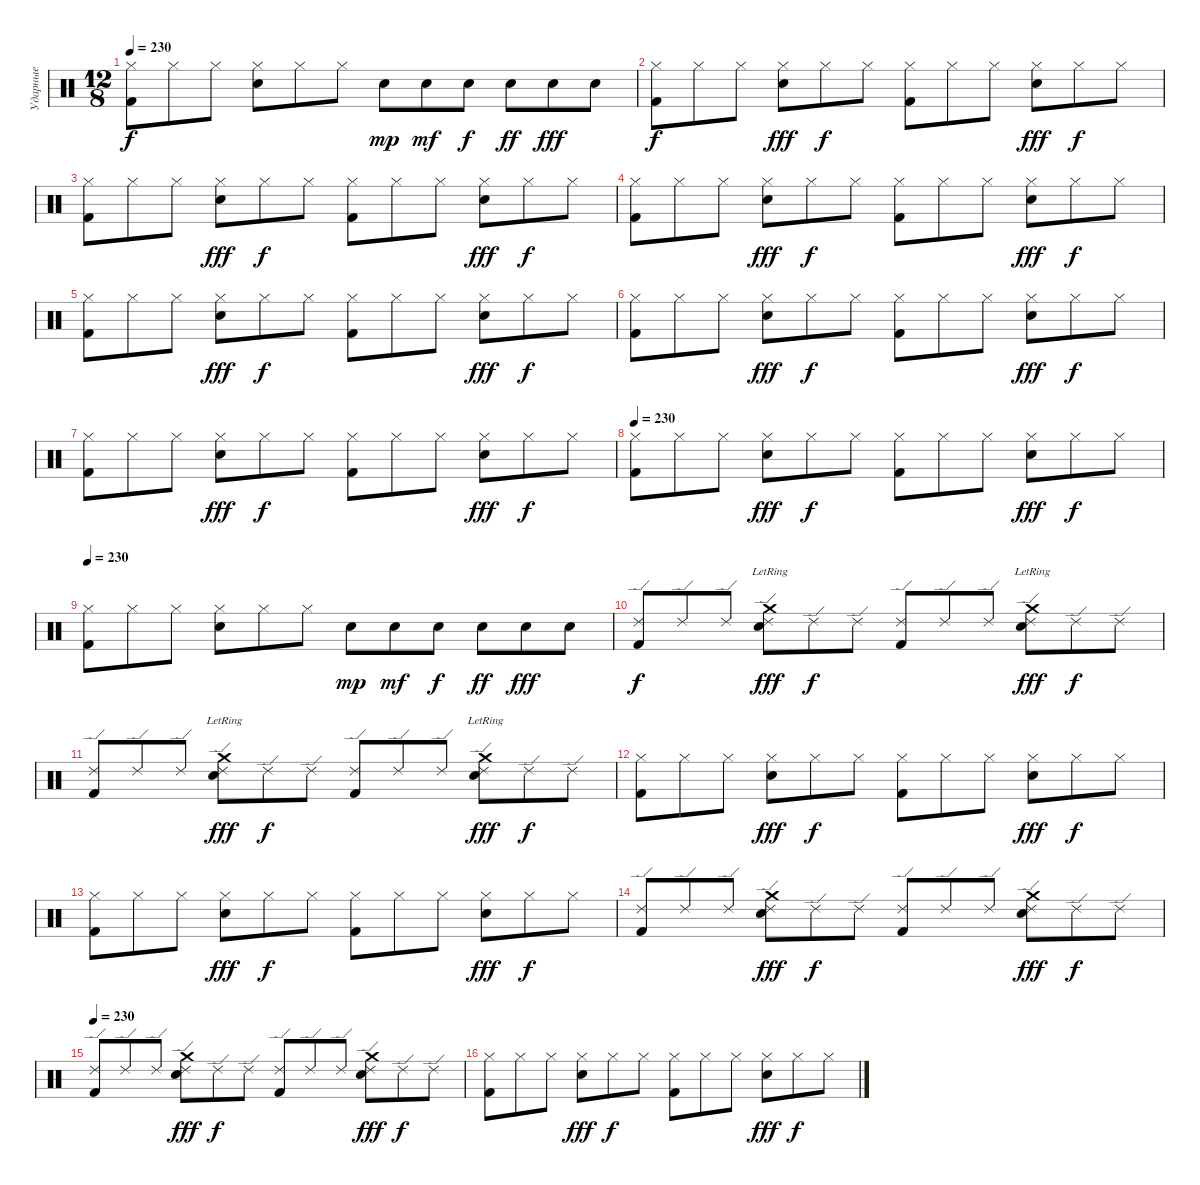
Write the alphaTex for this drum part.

\track ("Ударные" "Ударные") {instrument percussion}
\staff {score}
\articulation defaults
\ts (12 8)
\tempo 230
\clef neutral
\ks c
("Hi-Hat (closed)" "Kick (hit) 2").8{dy f} "Hi-Hat (closed)".8 "Hi-Hat (closed)".8 ("Hi-Hat (closed)" "Snare (hit) 2").8 "Hi-Hat (closed)".8 "Hi-Hat (closed)".8 "Snare (hit) 2".8{dy mp} "Snare (hit) 2".8{dy mf} "Snare (hit) 2".8{dy f} "Snare (hit) 2".8{dy ff} "Snare (hit) 2".8{dy fff} "Snare (hit) 2".8 |
("Hi-Hat (closed)" "Kick (hit) 2").8{dy f} "Hi-Hat (closed)".8 "Hi-Hat (closed)".8 ("Hi-Hat (closed)" "Snare (hit) 2").8{dy fff} "Hi-Hat (closed)".8{dy f} "Hi-Hat (closed)".8 ("Hi-Hat (closed)" "Kick (hit) 2").8 "Hi-Hat (closed)".8 "Hi-Hat (closed)".8 ("Hi-Hat (closed)" "Snare (hit) 2").8{dy fff} "Hi-Hat (closed)".8{dy f} "Hi-Hat (closed)".8 |
("Hi-Hat (closed)" "Kick (hit) 2").8 "Hi-Hat (closed)".8 "Hi-Hat (closed)".8 ("Hi-Hat (closed)" "Snare (hit) 2").8{dy fff} "Hi-Hat (closed)".8{dy f} "Hi-Hat (closed)".8 ("Hi-Hat (closed)" "Kick (hit) 2").8 "Hi-Hat (closed)".8 "Hi-Hat (closed)".8 ("Hi-Hat (closed)" "Snare (hit) 2").8{dy fff} "Hi-Hat (closed)".8{dy f} "Hi-Hat (closed)".8 |
("Hi-Hat (closed)" "Kick (hit) 2").8 "Hi-Hat (closed)".8 "Hi-Hat (closed)".8 ("Hi-Hat (closed)" "Snare (hit) 2").8{dy fff} "Hi-Hat (closed)".8{dy f} "Hi-Hat (closed)".8 ("Hi-Hat (closed)" "Kick (hit) 2").8 "Hi-Hat (closed)".8 "Hi-Hat (closed)".8 ("Hi-Hat (closed)" "Snare (hit) 2").8{dy fff} "Hi-Hat (closed)".8{dy f} "Hi-Hat (closed)".8 |
("Hi-Hat (closed)" "Kick (hit) 2").8 "Hi-Hat (closed)".8 "Hi-Hat (closed)".8 ("Hi-Hat (closed)" "Snare (hit) 2").8{dy fff} "Hi-Hat (closed)".8{dy f} "Hi-Hat (closed)".8 ("Hi-Hat (closed)" "Kick (hit) 2").8 "Hi-Hat (closed)".8 "Hi-Hat (closed)".8 ("Hi-Hat (closed)" "Snare (hit) 2").8{dy fff} "Hi-Hat (closed)".8{dy f} "Hi-Hat (closed)".8 |
("Hi-Hat (closed)" "Kick (hit) 2").8 "Hi-Hat (closed)".8 "Hi-Hat (closed)".8 ("Hi-Hat (closed)" "Snare (hit) 2").8{dy fff} "Hi-Hat (closed)".8{dy f} "Hi-Hat (closed)".8 ("Hi-Hat (closed)" "Kick (hit) 2").8 "Hi-Hat (closed)".8 "Hi-Hat (closed)".8 ("Hi-Hat (closed)" "Snare (hit) 2").8{dy fff} "Hi-Hat (closed)".8{dy f} "Hi-Hat (closed)".8 |
("Hi-Hat (closed)" "Kick (hit) 2").8 "Hi-Hat (closed)".8 "Hi-Hat (closed)".8 ("Hi-Hat (closed)" "Snare (hit) 2").8{dy fff} "Hi-Hat (closed)".8{dy f} "Hi-Hat (closed)".8 ("Hi-Hat (closed)" "Kick (hit) 2").8 "Hi-Hat (closed)".8 "Hi-Hat (closed)".8 ("Hi-Hat (closed)" "Snare (hit) 2").8{dy fff} "Hi-Hat (closed)".8{dy f} "Hi-Hat (closed)".8 |
\tempo 230
("Hi-Hat (closed)" "Kick (hit) 2").8 "Hi-Hat (closed)".8 "Hi-Hat (closed)".8 ("Hi-Hat (closed)" "Snare (hit) 2").8{dy fff} "Hi-Hat (closed)".8{dy f} "Hi-Hat (closed)".8 ("Hi-Hat (closed)" "Kick (hit) 2").8 "Hi-Hat (closed)".8 "Hi-Hat (closed)".8 ("Hi-Hat (closed)" "Snare (hit) 2").8{dy fff} "Hi-Hat (closed)".8{dy f} "Hi-Hat (closed)".8 |
\tempo 230
("Hi-Hat (closed)" "Kick (hit) 2").8 "Hi-Hat (closed)".8 "Hi-Hat (closed)".8 ("Hi-Hat (closed)" "Snare (hit) 2").8 "Hi-Hat (closed)".8 "Hi-Hat (closed)".8 "Snare (hit) 2".8{dy mp} "Snare (hit) 2".8{dy mf} "Snare (hit) 2".8{dy f} "Snare (hit) 2".8{dy ff} "Snare (hit) 2".8{dy fff} "Snare (hit) 2".8 |
("Ride (edge) 2" "Kick (hit) 2").8{dy f} "Ride (edge) 2".8 "Ride (edge) 2".8 ("Ride (edge) 2" "Snare (hit) 2" "Crash medium (hit)"{lr}).8{dy fff} "Ride (edge) 2".8{dy f} "Ride (edge) 2".8 ("Ride (edge) 2" "Kick (hit) 2").8 "Ride (edge) 2".8 "Ride (edge) 2".8 ("Ride (edge) 2" "Snare (hit) 2" "Crash medium (hit)"{lr}).8{dy fff} "Ride (edge) 2".8{dy f} "Ride (edge) 2".8 |
("Ride (edge) 2" "Kick (hit) 2").8 "Ride (edge) 2".8 "Ride (edge) 2".8 ("Ride (edge) 2" "Snare (hit) 2" "Crash medium (hit)"{lr}).8{dy fff} "Ride (edge) 2".8{dy f} "Ride (edge) 2".8 ("Ride (edge) 2" "Kick (hit) 2").8 "Ride (edge) 2".8 "Ride (edge) 2".8 ("Ride (edge) 2" "Snare (hit) 2" "Crash medium (hit)"{lr}).8{dy fff} "Ride (edge) 2".8{dy f} "Ride (edge) 2".8 |
("Hi-Hat (closed)" "Kick (hit) 2").8 "Hi-Hat (closed)".8 "Hi-Hat (closed)".8 ("Hi-Hat (closed)" "Snare (hit) 2").8{dy fff} "Hi-Hat (closed)".8{dy f} "Hi-Hat (closed)".8 ("Hi-Hat (closed)" "Kick (hit) 2").8 "Hi-Hat (closed)".8 "Hi-Hat (closed)".8 ("Hi-Hat (closed)" "Snare (hit) 2").8{dy fff} "Hi-Hat (closed)".8{dy f} "Hi-Hat (closed)".8 |
("Hi-Hat (closed)" "Kick (hit) 2").8 "Hi-Hat (closed)".8 "Hi-Hat (closed)".8 ("Hi-Hat (closed)" "Snare (hit) 2").8{dy fff} "Hi-Hat (closed)".8{dy f} "Hi-Hat (closed)".8 ("Hi-Hat (closed)" "Kick (hit) 2").8 "Hi-Hat (closed)".8 "Hi-Hat (closed)".8 ("Hi-Hat (closed)" "Snare (hit) 2").8{dy fff} "Hi-Hat (closed)".8{dy f} "Hi-Hat (closed)".8 |
("Ride (edge) 2" "Kick (hit) 2").8 "Ride (edge) 2".8 "Ride (edge) 2".8 ("Ride (edge) 2" "Snare (hit) 2" "Crash medium (hit)").8{dy fff} "Ride (edge) 2".8{dy f} "Ride (edge) 2".8 ("Ride (edge) 2" "Kick (hit) 2").8 "Ride (edge) 2".8 "Ride (edge) 2".8 ("Ride (edge) 2" "Snare (hit) 2" "Crash medium (hit)").8{dy fff} "Ride (edge) 2".8{dy f} "Ride (edge) 2".8 |
\tempo 230
("Ride (edge) 2" "Kick (hit) 2").8 "Ride (edge) 2".8 "Ride (edge) 2".8 ("Ride (edge) 2" "Snare (hit) 2" "Crash medium (hit)").8{dy fff} "Ride (edge) 2".8{dy f} "Ride (edge) 2".8 ("Ride (edge) 2" "Kick (hit) 2").8 "Ride (edge) 2".8 "Ride (edge) 2".8 ("Ride (edge) 2" "Snare (hit) 2" "Crash medium (hit)").8{dy fff} "Ride (edge) 2".8{dy f} "Ride (edge) 2".8 |
("Hi-Hat (closed)" "Kick (hit) 2").8 "Hi-Hat (closed)".8 "Hi-Hat (closed)".8 ("Hi-Hat (closed)" "Snare (hit) 2").8{dy fff} "Hi-Hat (closed)".8{dy f} "Hi-Hat (closed)".8 ("Hi-Hat (closed)" "Kick (hit) 2").8 "Hi-Hat (closed)".8 "Hi-Hat (closed)".8 ("Hi-Hat (closed)" "Snare (hit) 2").8{dy fff} "Hi-Hat (closed)".8{dy f} "Hi-Hat (closed)".8
